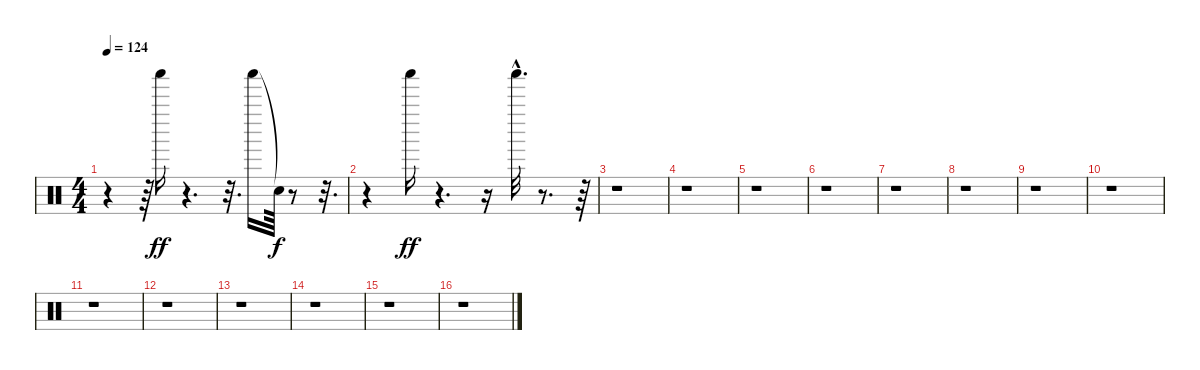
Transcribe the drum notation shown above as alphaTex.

\track "" {instrument percussion}
\staff {score}
\articulation defaults
\ts (4 4)
\tempo 124
\clef neutral
\ks c
r.4{dy ff} r.64 "Shaker (hit)".16 r.4{d} r.32{d} "Shaker (hit)".16 "Snare (hit)"{t}.64{dy f} r.8 r.32{d} |
r.4 "Shaker (hit)".16{dy ff} r.4{d} r.16 "Shaker (hit)"{hac}.32{d} r.8{d} r.64 |
r.1 |
r.1 |
r.1 |
r.1 |
r.1 |
r.1 |
r.1 |
r.1 |
r.1 |
r.1 |
r.1 |
r.1 |
r.1 |
r.1
